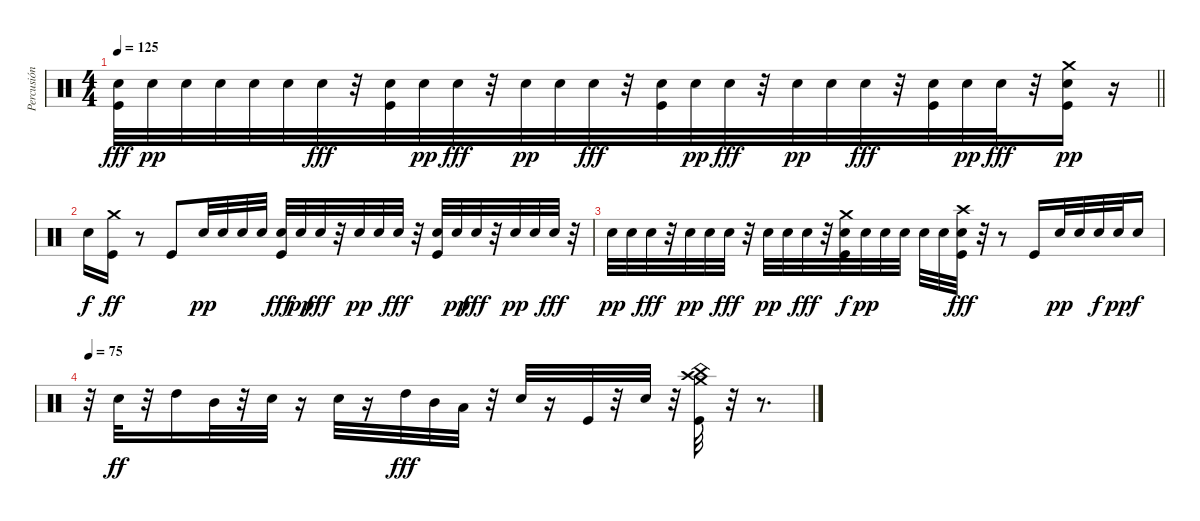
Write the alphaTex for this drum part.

\track ("Percusión" "Percusión") {instrument percussion}
\staff {score}
\articulation defaults
\ts (4 4)
\tempo 125
\clef neutral
\barLineRight lightlight
\ks c
("Snare (hit) 2" "Kick (hit)").32{dy fff beam merge} "Snare (hit) 2".32{dy pp beam merge} "Snare (hit) 2".32{beam merge} "Snare (hit) 2".32 "Snare (hit) 2".32 "Snare (hit) 2".32{beam merge} "Snare (hit) 2".32{dy fff beam merge} r.32{beam merge} ("Snare (hit) 2" "Kick (hit)").32{beam merge} "Snare (hit) 2".32{dy pp beam merge} "Snare (hit) 2".32{dy fff beam merge} r.32{beam merge} "Snare (hit) 2".32{dy pp beam merge} "Snare (hit) 2".32{beam merge} "Snare (hit) 2".32{dy fff beam merge} r.32{beam merge} ("Snare (hit) 2" "Kick (hit)").32{beam merge} "Snare (hit) 2".32{dy pp beam merge} "Snare (hit) 2".32{dy fff beam merge} r.32{beam merge} "Snare (hit) 2".32{dy pp beam merge} "Snare (hit) 2".32{beam merge} "Snare (hit) 2".32{dy fff beam merge} r.32{beam merge} ("Snare (hit) 2" "Kick (hit)").32{beam merge} "Snare (hit) 2".32{dy pp beam merge} "Snare (hit) 2".32{dy fff beam merge} r.32{beam merge} ("Crash medium (hit)" "Snare (hit) 2" "Kick (hit)").16{dy pp} r.16 |
"Snare (hit) 2".16{dy f} ("Crash medium (hit)" "Kick (hit)").16{dy ff} r.8 "Kick (hit)".8 "Snare (hit) 2".32{dy pp} "Snare (hit) 2".32 "Snare (hit) 2".32 "Snare (hit) 2".32 ("Snare (hit) 2" "Kick (hit)").32{dy fff} "Snare (hit) 2".32{dy pp} "Snare (hit) 2".32{dy fff} r.32 "Snare (hit) 2".32{dy pp} "Snare (hit) 2".32 "Snare (hit) 2".32{dy fff} r.32 ("Snare (hit) 2" "Kick (hit)").32 "Snare (hit) 2".32{dy pp} "Snare (hit) 2".32{dy fff} r.32 "Snare (hit) 2".32{dy pp} "Snare (hit) 2".32 "Snare (hit) 2".32{dy fff} r.32 |
"Snare (hit) 2".32{dy pp} "Snare (hit) 2".32 "Snare (hit) 2".32{dy fff} r.32 "Snare (hit) 2".32{dy pp} "Snare (hit) 2".32 "Snare (hit) 2".32{dy fff} r.32 "Snare (hit) 2".32{dy pp} "Snare (hit) 2".32 "Snare (hit) 2".32{dy fff} r.32 ("Crash medium (hit)" "Snare (hit) 2" "Kick (hit)").32{dy f} "Snare (hit) 2".32{dy pp} "Snare (hit) 2".32 "Snare (hit) 2".32 "Snare (hit) 2".32 "Snare (hit) 2".32 ("Crash high (hit)" "Snare (hit) 2" "Kick (hit)").32{dy fff} r.32 r.8 "Kick (hit)".16 "Snare (hit) 2".32{dy pp} "Snare (hit) 2".32 "Snare (hit) 2".32{dy f} "Snare (hit) 2".32{dy pp} "Snare (hit) 2".16{dy f} |
\tempo 75
r.32 "Snare (hit) 2".32{dy ff} r.32 "High Tom (hit)".16 "Mid Tom (hit)".32 r.32 "Snare (hit) 2".32 r.16 "Snare (hit) 2".32 r.16 "High Tom (hit)".32{dy fff} "Mid Tom (hit)".32 "Low Tom (hit)".32 r.32 "Snare (hit) 2".32 r.16 "Kick (hit)".32 r.32 "Snare (hit) 2".32 r.32 ("Crash medium (hit)" "Crash high (hit)" "China (hit)" "Kick (hit)").32 r.32 r.8{d}
